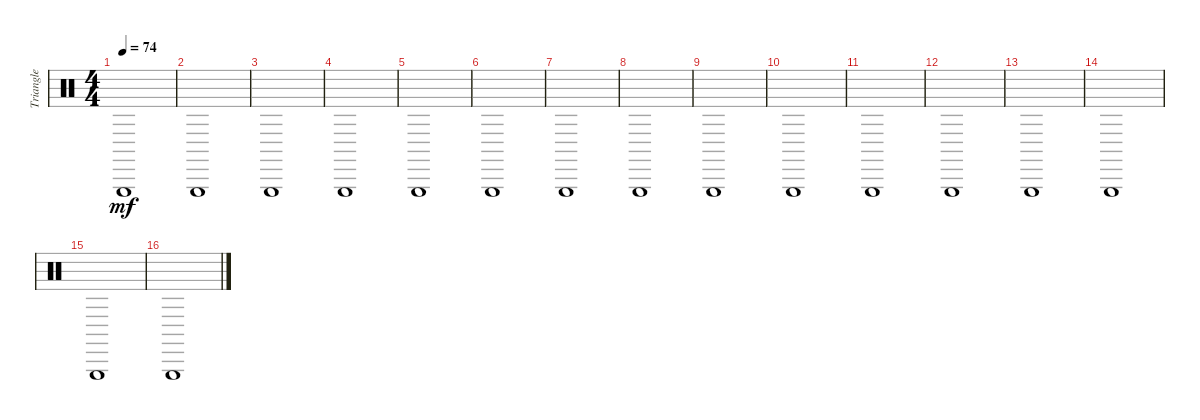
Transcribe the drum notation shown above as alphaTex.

\track ("Triangle" "Triangle") {instrument percussion}
\staff {score}
\articulation defaults
\ts (4 4)
\tempo 74
\clef neutral
\ks c "Triangle (hit)".1{dy mf}
|
"Triangle (hit)".1 |
"Triangle (hit)".1 |
"Triangle (hit)".1 |
"Triangle (hit)".1 |
"Triangle (hit)".1 |
"Triangle (hit)".1 |
"Triangle (hit)".1 |
"Triangle (hit)".1 |
"Triangle (hit)".1 |
"Triangle (hit)".1 |
"Triangle (hit)".1 |
"Triangle (hit)".1 |
"Triangle (hit)".1 |
"Triangle (hit)".1 |
"Triangle (hit)".1
